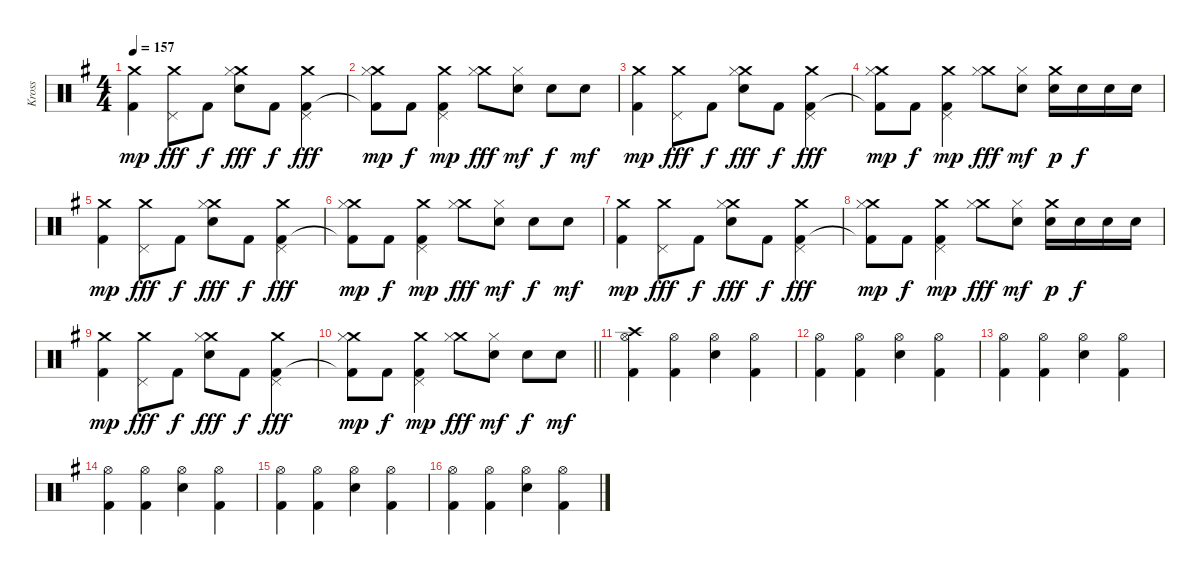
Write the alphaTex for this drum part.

\track ("Kross" "Kross") {instrument percussion}
\staff {score}
\articulation defaults
\ts (4 4)
\tempo 157
\clef neutral
\ks g
("Crash medium (hit)" "Kick (hit) 2").4{dy mp} ("Crash medium (hit)" "Pedal Hi-Hat (hit)").8{dy fff} "Kick (hit) 2".8{dy f} ("Crash medium (hit)" "Hi-Hat (closed)" "Electric Snare (hit)").8{dy fff} "Kick (hit) 2".8{dy f} ("Crash medium (hit)" "Pedal Hi-Hat (hit)" "Kick (hit) 2").4{dy fff} |
("Crash medium (hit)" "Hi-Hat (closed)" "Kick (hit) 2"{t}).8{dy mp} "Kick (hit) 2".8{dy f} ("Crash medium (hit)" "Pedal Hi-Hat (hit)" "Kick (hit) 2").4{dy mp} ("Crash medium (hit)" "Hi-Hat (closed)").8{dy fff} ("Hi-Hat (closed)" "Snare (hit) 2").8{dy mf} "Electric Snare (hit)".8{dy f} "Snare (hit) 2".8{dy mf} |
("Crash medium (hit)" "Kick (hit) 2").4{dy mp} ("Crash medium (hit)" "Pedal Hi-Hat (hit)").8{dy fff} "Kick (hit) 2".8{dy f} ("Crash medium (hit)" "Hi-Hat (closed)" "Electric Snare (hit)").8{dy fff} "Kick (hit) 2".8{dy f} ("Crash medium (hit)" "Pedal Hi-Hat (hit)" "Kick (hit) 2").4{dy fff} |
("Crash medium (hit)" "Hi-Hat (closed)" "Kick (hit) 2"{t}).8{dy mp} "Kick (hit) 2".8{dy f} ("Crash medium (hit)" "Pedal Hi-Hat (hit)" "Kick (hit) 2").4{dy mp} ("Crash medium (hit)" "Hi-Hat (closed)").8{dy fff} ("Hi-Hat (closed)" "Snare (hit) 2").8{dy mf} ("Crash medium (hit)" "Electric Snare (hit)").16{dy p} "Electric Snare (hit)".16{dy f} "Electric Snare (hit)".16 "Electric Snare (hit)".16 |
("Crash medium (hit)" "Kick (hit) 2").4{dy mp} ("Crash medium (hit)" "Pedal Hi-Hat (hit)").8{dy fff} "Kick (hit) 2".8{dy f} ("Crash medium (hit)" "Hi-Hat (closed)" "Electric Snare (hit)").8{dy fff} "Kick (hit) 2".8{dy f} ("Crash medium (hit)" "Pedal Hi-Hat (hit)" "Kick (hit) 2").4{dy fff} |
("Crash medium (hit)" "Hi-Hat (closed)" "Kick (hit) 2"{t}).8{dy mp} "Kick (hit) 2".8{dy f} ("Crash medium (hit)" "Pedal Hi-Hat (hit)" "Kick (hit) 2").4{dy mp} ("Crash medium (hit)" "Hi-Hat (closed)").8{dy fff} ("Hi-Hat (closed)" "Snare (hit) 2").8{dy mf} "Electric Snare (hit)".8{dy f} "Electric Snare (hit)".8{dy mf} |
("Crash medium (hit)" "Kick (hit) 2").4{dy mp} ("Crash medium (hit)" "Pedal Hi-Hat (hit)").8{dy fff} "Kick (hit) 2".8{dy f} ("Crash medium (hit)" "Hi-Hat (closed)" "Electric Snare (hit)").8{dy fff} "Kick (hit) 2".8{dy f} ("Crash medium (hit)" "Pedal Hi-Hat (hit)" "Kick (hit) 2").4{dy fff} |
("Crash medium (hit)" "Hi-Hat (closed)" "Kick (hit) 2"{t}).8{dy mp} "Kick (hit) 2".8{dy f} ("Crash medium (hit)" "Pedal Hi-Hat (hit)" "Kick (hit) 2").4{dy mp} ("Crash medium (hit)" "Hi-Hat (closed)").8{dy fff} ("Hi-Hat (closed)" "Snare (hit) 2").8{dy mf} ("Crash medium (hit)" "Electric Snare (hit)").16{dy p} "Electric Snare (hit)".16{dy f} "Electric Snare (hit)".16 "Electric Snare (hit)".16 |
("Crash medium (hit)" "Kick (hit) 2").4{dy mp} ("Crash medium (hit)" "Pedal Hi-Hat (hit)").8{dy fff} "Kick (hit) 2".8{dy f} ("Crash medium (hit)" "Hi-Hat (closed)" "Electric Snare (hit)").8{dy fff} "Kick (hit) 2".8{dy f} ("Crash medium (hit)" "Pedal Hi-Hat (hit)" "Kick (hit) 2").4{dy fff} |
\barLineRight lightlight
("Crash medium (hit)" "Hi-Hat (closed)" "Kick (hit) 2"{t}).8{dy mp} "Kick (hit) 2".8{dy f} ("Crash medium (hit)" "Pedal Hi-Hat (hit)" "Kick (hit) 2").4{dy mp} ("Crash medium (hit)" "Hi-Hat (closed)").8{dy fff} ("Hi-Hat (closed)" "Snare (hit) 2").8{dy mf} "Electric Snare (hit)".8{dy f} "Electric Snare (hit)".8{dy mf} |
("Crash high (hit)" "Hi-Hat (open)" "Kick (hit) 2").4 ("Hi-Hat (open)" "Kick (hit) 2").4 ("Hi-Hat (open)" "Snare (hit) 2").4 ("Hi-Hat (open)" "Kick (hit) 2").4 |
("Hi-Hat (open)" "Kick (hit) 2").4 ("Hi-Hat (open)" "Kick (hit) 2").4 ("Hi-Hat (open)" "Snare (hit) 2").4 ("Hi-Hat (open)" "Kick (hit) 2").4 |
("Hi-Hat (open)" "Kick (hit) 2").4 ("Hi-Hat (open)" "Kick (hit) 2").4 ("Hi-Hat (open)" "Snare (hit) 2").4 ("Hi-Hat (open)" "Kick (hit) 2").4 |
("Hi-Hat (open)" "Kick (hit) 2").4 ("Hi-Hat (open)" "Kick (hit) 2").4 ("Hi-Hat (open)" "Snare (hit) 2").4 ("Hi-Hat (open)" "Kick (hit) 2").4 |
("Hi-Hat (open)" "Kick (hit) 2").4 ("Hi-Hat (open)" "Kick (hit) 2").4 ("Hi-Hat (open)" "Snare (hit) 2").4 ("Hi-Hat (open)" "Kick (hit) 2").4 |
("Hi-Hat (open)" "Kick (hit) 2").4 ("Hi-Hat (open)" "Kick (hit) 2").4 ("Hi-Hat (open)" "Snare (hit) 2").4 ("Hi-Hat (open)" "Kick (hit) 2").4
